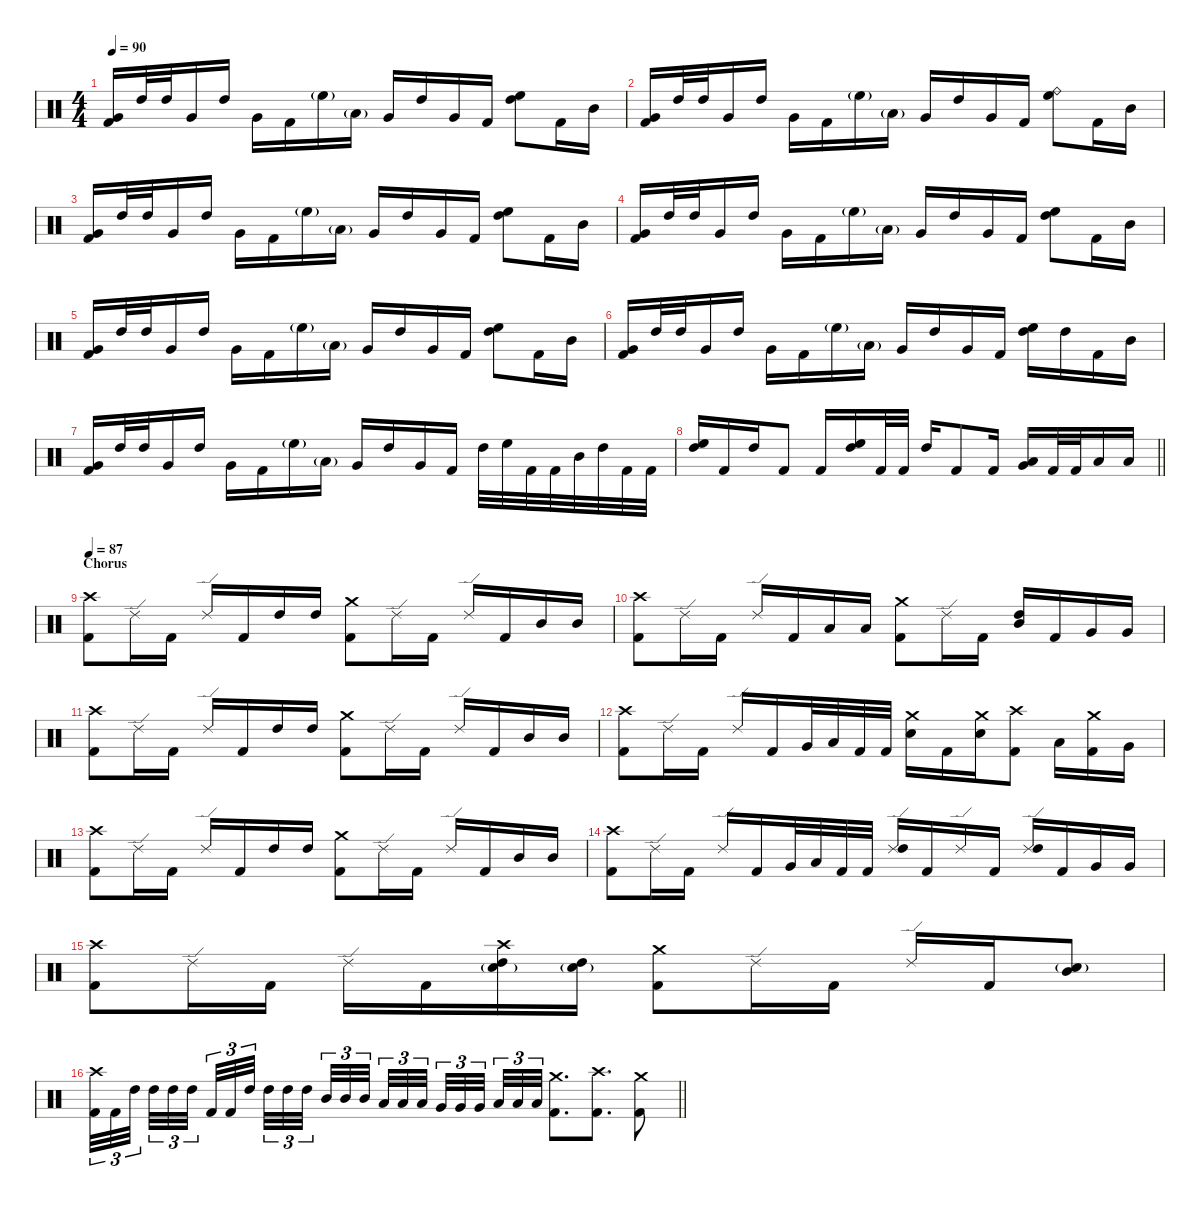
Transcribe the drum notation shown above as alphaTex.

\defaultSystemsLayout 4
\hideDynamics
\bracketExtendMode nobrackets
\singleTrackTrackNamePolicy hidden
\multiTrackTrackNamePolicy hidden
\otherSystemsTrackNameOrientation horizontal
\track ("Drums" "drm.") {instrument percussion}
\staff {score}
\articulation defaults
\ts (4 4)
\section ("" "")
\tempo 90
\clef neutral
\ks c
("Very Low Tom (hit)" "Kick (hit) 2").16{dy f beam Up} "High Tom (hit)".32{beam Up} "High Tom (hit)".32{beam Up} "Very Low Tom (hit)".16{beam Up} "High Tom (hit)".16{beam Up} "Very Low Tom (hit)".16{beam Down} "Kick (hit) 2".16{beam Down} "High Floor Tom (hit)"{g}.16{dy ff beam Down} "Low Floor Tom (hit)"{g}.16{beam Down} "Very Low Tom (hit)".16{dy f beam Up} "High Tom (hit)".16{beam Up} "Very Low Tom (hit)".16{beam Up} "Kick (hit) 2".16{beam Up} ("High Floor Tom (hit)" "High Tom (hit)").8{beam Down} "Kick (hit) 2".16{beam Down} "Mid Tom (hit)".16{beam Down} |
("Very Low Tom (hit)" "Kick (hit) 2").16{beam Up} "High Tom (hit)".32{beam Up} "High Tom (hit)".32{beam Up} "Very Low Tom (hit)".16{beam Up} "High Tom (hit)".16{beam Up} "Very Low Tom (hit)".16{beam Down} "Kick (hit) 2".16{beam Down} "High Floor Tom (hit)"{g}.16{dy ff beam Down} "Low Floor Tom (hit)"{g}.16{beam Down} "Very Low Tom (hit)".16{dy f beam Up} "High Tom (hit)".16{beam Up} "Very Low Tom (hit)".16{beam Up} "Kick (hit) 2".16{beam Up} ("Ride (bell)" "High Floor Tom (hit)").8{dy mf beam Down} "Kick (hit) 2".16{dy f beam Down} "Mid Tom (hit)".16{beam Down} |
("Very Low Tom (hit)" "Kick (hit) 2").16{beam Up} "High Tom (hit)".32{beam Up} "High Tom (hit)".32{beam Up} "Very Low Tom (hit)".16{beam Up} "High Tom (hit)".16{beam Up} "Very Low Tom (hit)".16{beam Down} "Kick (hit) 2".16{beam Down} "High Floor Tom (hit)"{g}.16{dy ff beam Down} "Low Floor Tom (hit)"{g}.16{beam Down} "Very Low Tom (hit)".16{dy f beam Up} "High Tom (hit)".16{beam Up} "Very Low Tom (hit)".16{beam Up} "Kick (hit) 2".16{beam Up} ("High Floor Tom (hit)" "High Tom (hit)").8{beam Down} "Kick (hit) 2".16{beam Down} "Mid Tom (hit)".16{beam Down} |
("Very Low Tom (hit)" "Kick (hit) 2").16{beam Up} "High Tom (hit)".32{beam Up} "High Tom (hit)".32{beam Up} "Very Low Tom (hit)".16{beam Up} "High Tom (hit)".16{beam Up} "Very Low Tom (hit)".16{beam Down} "Kick (hit) 2".16{beam Down} "High Floor Tom (hit)"{g}.16{dy ff beam Down} "Low Floor Tom (hit)"{g}.16{beam Down} "Very Low Tom (hit)".16{dy f beam Up} "High Tom (hit)".16{beam Up} "Very Low Tom (hit)".16{beam Up} "Kick (hit) 2".16{beam Up} ("High Floor Tom (hit)" "High Tom (hit)").8{beam Down} "Kick (hit) 2".16{beam Down} "Mid Tom (hit)".16{beam Down} |
("Very Low Tom (hit)" "Kick (hit) 2").16{beam Up} "High Tom (hit)".32{beam Up} "High Tom (hit)".32{beam Up} "Very Low Tom (hit)".16{beam Up} "High Tom (hit)".16{beam Up} "Very Low Tom (hit)".16{beam Down} "Kick (hit) 2".16{beam Down} "High Floor Tom (hit)"{g}.16{dy ff beam Down} "Low Floor Tom (hit)"{g}.16{beam Down} "Very Low Tom (hit)".16{dy f beam Up} "High Tom (hit)".16{beam Up} "Very Low Tom (hit)".16{beam Up} "Kick (hit) 2".16{beam Up} ("High Floor Tom (hit)" "High Tom (hit)").8{beam Down} "Kick (hit) 2".16{beam Down} "Mid Tom (hit)".16{beam Down} |
("Very Low Tom (hit)" "Kick (hit) 2").16{beam Up} "High Tom (hit)".32{beam Up} "High Tom (hit)".32{beam Up} "Very Low Tom (hit)".16{beam Up} "High Tom (hit)".16{beam Up} "Very Low Tom (hit)".16{beam Down} "Kick (hit) 2".16{beam Down} "High Floor Tom (hit)"{g}.16{dy ff beam Down} "Low Floor Tom (hit)"{g}.16{beam Down} "Very Low Tom (hit)".16{dy f beam Up} "High Tom (hit)".16{beam Up} "Very Low Tom (hit)".16{beam Up} "Kick (hit) 2".16{beam Up} ("High Floor Tom (hit)" "High Tom (hit)").16{beam Down} "High Tom (hit)".16{beam Down} "Kick (hit) 2".16{beam Down} "Mid Tom (hit)".16{beam Down} |
("Very Low Tom (hit)" "Kick (hit) 2").16{beam Up} "High Tom (hit)".32{beam Up} "High Tom (hit)".32{beam Up} "Very Low Tom (hit)".16{beam Up} "High Tom (hit)".16{beam Up} "Very Low Tom (hit)".16{beam Down} "Kick (hit) 2".16{beam Down} "High Floor Tom (hit)"{g}.16{dy ff beam Down} "Low Floor Tom (hit)"{g}.16{beam Down} "Very Low Tom (hit)".16{dy f beam Up} "High Tom (hit)".16{beam Up} "Very Low Tom (hit)".16{beam Up} "Kick (hit) 2".16{beam Up} "High Tom (hit)".32{beam Down} "High Floor Tom (hit)".32{beam Down} "Kick (hit) 2".32{beam Down} "Kick (hit) 2".32{beam Down} "Mid Tom (hit)".32{beam Down} "High Tom (hit)".32{beam Down} "Kick (hit) 2".32{beam Down} "Kick (hit) 2".32{beam Down} |
\barLineRight lightlight
("High Floor Tom (hit)" "High Tom (hit)").16{beam Up} "Kick (hit) 2".16{beam Up} "High Tom (hit)".16{beam Up} "Kick (hit) 2".8{beam Up} "Kick (hit) 2".16{beam Up} ("High Floor Tom (hit)" "High Tom (hit)").16{beam Up} "Kick (hit) 2".32{beam Up} "Kick (hit) 2".32{beam Up} "High Tom (hit)".16{beam Up} "Kick (hit) 2".8{beam Up} "Kick (hit) 2".16{beam Up} ("Low Tom (hit)" "Very Low Tom (hit)").16{beam Up} "Kick (hit) 2".32{beam Up} "Kick (hit) 2".32{beam Up} "Low Floor Tom (hit)".16{beam Up} "Low Floor Tom (hit)".16{beam Up} |
\section ("" "Chorus")
\tempo 87
("Crash high (hit)" "Kick (hit) 2").8{beam Down} "Ride (edge) 2".16{beam Down} "Kick (hit) 2".16{beam Down} "Ride (edge) 2".16{beam Up} "Kick (hit) 2".16{beam Up} "High Tom (hit)".16{beam Up} "High Tom (hit)".16{beam Up} ("Crash medium (hit)" "Kick (hit) 2").8{beam Down} "Ride (edge) 2".16{beam Down} "Kick (hit) 2".16{beam Down} "Ride (edge) 2".16{beam Up} "Kick (hit) 2".16{beam Up} "Mid Tom (hit)".16{beam Up} "Mid Tom (hit)".16{beam Up} |
("Crash high (hit)" "Kick (hit) 2").8{beam Down} "Ride (edge) 2".16{beam Down} "Kick (hit) 2".16{beam Down} "Ride (edge) 2".16{beam Up} "Kick (hit) 2".16{beam Up} "Low Tom (hit)".16{beam Up} "Low Tom (hit)".16{beam Up} ("Crash medium (hit)" "Kick (hit) 2").8{beam Down} "Ride (edge) 2".16{beam Down} "Kick (hit) 2".16{beam Down} ("High Tom (hit)" "Mid Tom (hit)").16{beam Up} "Kick (hit) 2".16{beam Up} "Very Low Tom (hit)".16{beam Up} "Very Low Tom (hit)".16{beam Up} |
("Crash high (hit)" "Kick (hit) 2").8{beam Down} "Ride (edge) 2".16{beam Down} "Kick (hit) 2".16{beam Down} "Ride (edge) 2".16{beam Up} "Kick (hit) 2".16{beam Up} "High Tom (hit)".16{beam Up} "High Tom (hit)".16{beam Up} ("Crash medium (hit)" "Kick (hit) 2").8{beam Down} "Ride (edge) 2".16{beam Down} "Kick (hit) 2".16{beam Down} "Ride (edge) 2".16{beam Up} "Kick (hit) 2".16{beam Up} "Mid Tom (hit)".16{beam Up} "Mid Tom (hit)".16{beam Up} |
("Crash high (hit)" "Kick (hit) 2").8{beam Down} "Ride (edge) 2".16{beam Down} "Kick (hit) 2".16{beam Down} "Ride (edge) 2".16{beam Up} "Kick (hit) 2".16{beam Up} "Very Low Tom (hit)".32{beam Up} "Low Tom (hit)".32{beam Up} "Kick (hit) 2".32{beam Up} "Kick (hit) 2".32{beam Up} ("Crash medium (hit)" "Snare (hit) 2").16{beam Down} "Kick (hit) 2".16{beam Down} ("Crash medium (hit)" "Snare (hit) 2").16{beam Down} ("Crash high (hit)" "Kick (hit) 2").8{beam Down} "Low Tom (hit)".16{beam Down} ("Crash medium (hit)" "Kick (hit) 2").16{beam Down} "Very Low Tom (hit)".16{beam Down} |
("Crash high (hit)" "Kick (hit) 2").8{beam Down} "Ride (edge) 2".16{beam Down} "Kick (hit) 2".16{beam Down} "Ride (edge) 2".16{beam Up} "Kick (hit) 2".16{beam Up} "High Tom (hit)".16{beam Up} "High Tom (hit)".16{beam Up} ("Crash medium (hit)" "Kick (hit) 2").8{beam Down} "Ride (edge) 2".16{beam Down} "Kick (hit) 2".16{beam Down} "Ride (edge) 2".16{beam Up} "Kick (hit) 2".16{beam Up} "Mid Tom (hit)".16{beam Up} "Mid Tom (hit)".16{beam Up} |
("Crash high (hit)" "Kick (hit) 2").8{beam Down} "Ride (edge) 2".16{beam Down} "Kick (hit) 2".16{beam Down} "Ride (edge) 2".16{beam Up} "Kick (hit) 2".16{beam Up} "Very Low Tom (hit)".32{beam Up} "Low Tom (hit)".32{beam Up} "Kick (hit) 2".32{beam Up} "Kick (hit) 2".32{beam Up} ("Ride (edge) 2" "High Tom (hit)").16{beam Up} "Kick (hit) 2".16{beam Up} "Ride (edge) 2".16{beam Up} "Kick (hit) 2".16{beam Up} ("Ride (edge) 2" "High Tom (hit)").16{beam Up} "Kick (hit) 2".16{beam Up} "Very Low Tom (hit)".16{beam Up} "Very Low Tom (hit)".16{beam Up} |
("Crash high (hit)" "Kick (hit) 2").8{beam Down} "Ride (edge) 2".16{beam Down} "Kick (hit) 2".16{beam Down} "Ride (edge) 2".16{beam Down} "Kick (hit) 2".16{beam Down} ("Crash high (hit)" "High Tom (hit)" "Snare (hit) 2"{g}).16{beam Down} ("High Tom (hit)" "Snare (hit) 2"{g}).16{beam Down} ("Crash medium (hit)" "Kick (hit) 2").8{beam Down} "Ride (edge) 2".16{beam Down} "Kick (hit) 2".16{beam Down} "Ride (edge) 2".16{beam Up} "Kick (hit) 2".16{beam Up} ("Mid Tom (hit)" "Snare (hit) 2"{g}).8{beam Up} |
\barLineRight lightlight
("Crash high (hit)" "Kick (hit) 2").32{tu (3 2) beam Down} "Kick (hit) 2".32{tu (3 2) beam Down} "High Tom (hit)".32{tu (3 2) beam Down} "High Tom (hit)".32{tu (3 2) beam Down} "High Tom (hit)".32{tu (3 2) beam Down} "High Tom (hit)".32{tu (3 2) beam Down} "Kick (hit) 2".32{tu (3 2) beam Up} "Kick (hit) 2".32{tu (3 2) beam Up} "High Tom (hit)".32{tu (3 2) beam Up} "High Tom (hit)".32{tu (3 2) beam Down} "High Tom (hit)".32{tu (3 2) beam Down} "High Tom (hit)".32{tu (3 2) beam Down} "Mid Tom (hit)".32{tu (3 2) beam Up} "Mid Tom (hit)".32{tu (3 2) beam Up} "Mid Tom (hit)".32{tu (3 2) beam Up} "Low Tom (hit)".32{tu (3 2) beam Up} "Low Tom (hit)".32{tu (3 2) beam Up} "Low Tom (hit)".32{tu (3 2) beam Up} "Very Low Tom (hit)".32{tu (3 2) beam Up} "Very Low Tom (hit)".32{tu (3 2) beam Up} "Very Low Tom (hit)".32{tu (3 2) beam Up} "Low Floor Tom (hit)".32{tu (3 2) beam Up} "Low Floor Tom (hit)".32{tu (3 2) beam Up} "Low Floor Tom (hit)".32{tu (3 2) beam Up} ("Crash medium (hit)" "Kick (hit) 2").8{d beam Down} ("Crash high (hit)" "Kick (hit) 2").8{d beam Down} ("Crash medium (hit)" "Kick (hit) 2").8{beam Down}
